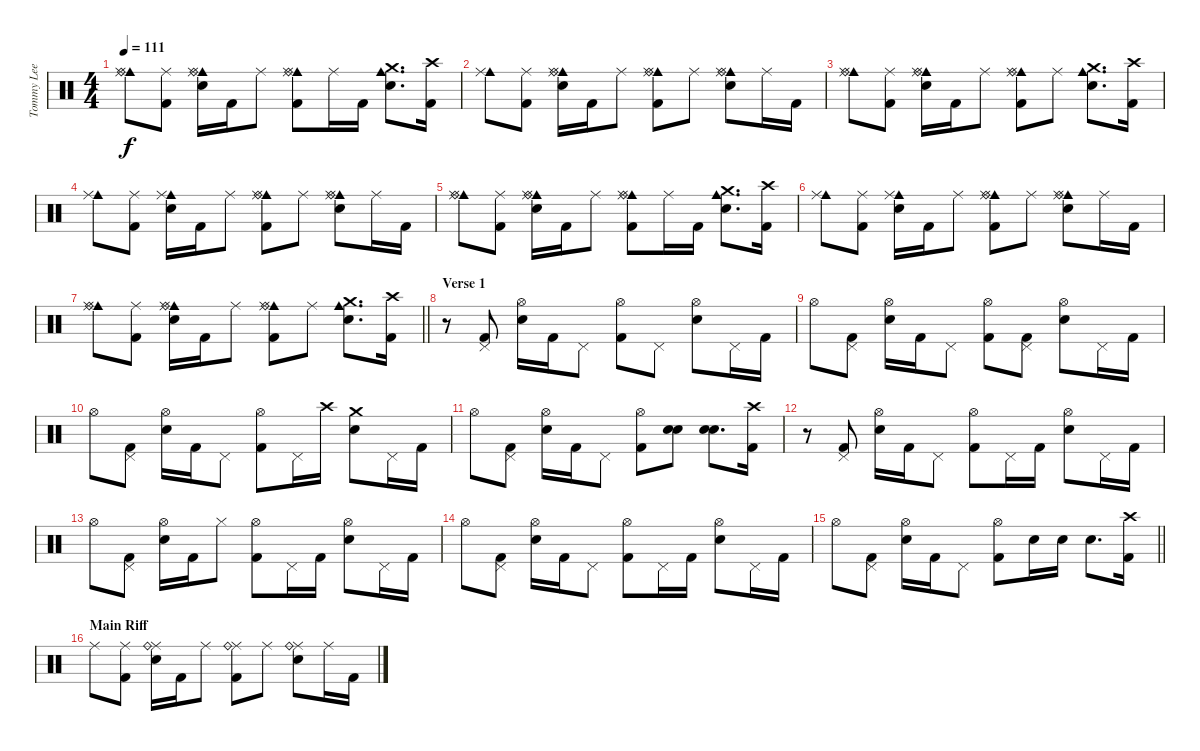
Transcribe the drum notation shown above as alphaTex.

\track ("Tommy Lee" "Tommy Lee") {instrument percussion}
\staff {score}
\articulation defaults
\ts (4 4)
\tempo 111
\clef neutral
\ks c
("Cowbell medium (hit)" "Ride (middle)" "Ride (bell)").8{dy f} ("Ride (middle)" "Kick (hit) 2").8 ("Cowbell medium (hit)" "Ride (middle)" "Ride (bell)" "Snare (hit) 2").16 "Kick (hit) 2".16 "Ride (middle)".8 ("Cowbell medium (hit)" "Ride (middle)" "Ride (bell)" "Kick (hit) 2").8 "Ride (middle)".16 "Kick (hit) 2".16 ("Cowbell medium (hit)" "Crash medium (hit)" "Snare (hit) 2").8{d} ("Crash high (hit)" "Kick (hit) 2").16 |
("Cowbell medium (hit)" "Ride (middle)").8 ("Ride (middle)" "Kick (hit) 2").8 ("Cowbell medium (hit)" "Ride (middle)" "Ride (bell)" "Snare (hit) 2").16 "Kick (hit) 2".16 "Ride (middle)".8 ("Cowbell medium (hit)" "Ride (middle)" "Ride (bell)" "Kick (hit) 2").8 "Ride (middle)".8 ("Cowbell medium (hit)" "Ride (middle)" "Ride (bell)" "Snare (hit) 2").8 "Ride (middle)".16 "Kick (hit) 2".16 |
("Cowbell medium (hit)" "Ride (middle)" "Ride (bell)").8 ("Ride (middle)" "Kick (hit) 2").8 ("Cowbell medium (hit)" "Ride (middle)" "Ride (bell)" "Snare (hit) 2").16 "Kick (hit) 2".16 "Ride (middle)".8 ("Cowbell medium (hit)" "Ride (middle)" "Ride (bell)" "Kick (hit) 2").8 "Ride (middle)".8 ("Cowbell medium (hit)" "Crash medium (hit)" "Snare (hit) 2").8{d} ("Crash high (hit)" "Kick (hit) 2").16 |
("Cowbell medium (hit)" "Ride (middle)").8 ("Ride (middle)" "Kick (hit) 2").8 ("Cowbell medium (hit)" "Ride (middle)" "Snare (hit) 2").16 "Kick (hit) 2".16 "Ride (middle)".8 ("Cowbell medium (hit)" "Ride (middle)" "Ride (bell)" "Kick (hit) 2").8 "Ride (middle)".8 ("Cowbell medium (hit)" "Ride (middle)" "Ride (bell)" "Snare (hit) 2").8 "Ride (middle)".16 "Kick (hit) 2".16 |
("Cowbell medium (hit)" "Ride (middle)" "Ride (bell)").8 ("Ride (middle)" "Kick (hit) 2").8 ("Cowbell medium (hit)" "Ride (middle)" "Ride (bell)" "Snare (hit) 2").16 "Kick (hit) 2".16 "Ride (middle)".8 ("Cowbell medium (hit)" "Ride (middle)" "Ride (bell)" "Kick (hit) 2").8 "Ride (middle)".16 "Kick (hit) 2".16 ("Cowbell medium (hit)" "Crash medium (hit)" "Snare (hit) 2").8{d} ("Crash high (hit)" "Kick (hit) 2").16 |
("Cowbell medium (hit)" "Ride (middle)").8 ("Ride (middle)" "Kick (hit) 2").8 ("Cowbell medium (hit)" "Ride (middle)" "Snare (hit) 2").16 "Kick (hit) 2".16 "Ride (middle)".8 ("Cowbell medium (hit)" "Ride (middle)" "Ride (bell)" "Kick (hit) 2").8 "Ride (middle)".8 ("Cowbell medium (hit)" "Ride (middle)" "Ride (bell)" "Snare (hit) 2").8 "Ride (middle)".16 "Kick (hit) 2".16 |
\barLineRight lightlight
("Cowbell medium (hit)" "Ride (middle)" "Ride (bell)").8 ("Ride (middle)" "Kick (hit) 2").8 ("Cowbell medium (hit)" "Ride (middle)" "Ride (bell)" "Snare (hit) 2").16 "Kick (hit) 2".16 "Ride (middle)".8 ("Cowbell medium (hit)" "Ride (middle)" "Ride (bell)" "Kick (hit) 2").8 "Ride (middle)".8 ("Cowbell medium (hit)" "Crash medium (hit)" "Snare (hit) 2").8{d} ("Crash high (hit)" "Kick (hit) 2").16 |
\section ("" "Verse 1")
r.8 ("Pedal Hi-Hat (hit)" "Kick (hit) 2").8 ("Hi-Hat (open)" "Snare (hit) 2").16 "Kick (hit) 2".16 "Pedal Hi-Hat (hit)".8 ("Hi-Hat (open)" "Kick (hit) 2").8 "Pedal Hi-Hat (hit)".8 ("Hi-Hat (open)" "Snare (hit) 2").8 "Pedal Hi-Hat (hit)".16 "Kick (hit) 2".16 |
"Hi-Hat (open)".8 ("Pedal Hi-Hat (hit)" "Kick (hit) 2").8 ("Hi-Hat (open)" "Snare (hit) 2").16 "Kick (hit) 2".16 "Pedal Hi-Hat (hit)".8 ("Hi-Hat (open)" "Kick (hit) 2").8 ("Pedal Hi-Hat (hit)" "Kick (hit) 2").8 ("Hi-Hat (open)" "Snare (hit) 2").8 "Pedal Hi-Hat (hit)".16 "Kick (hit) 2".16 |
"Hi-Hat (open)".8 ("Pedal Hi-Hat (hit)" "Kick (hit) 2").8 ("Hi-Hat (open)" "Snare (hit) 2").16 "Kick (hit) 2".16 "Pedal Hi-Hat (hit)".8 ("Hi-Hat (open)" "Kick (hit) 2").8 "Pedal Hi-Hat (hit)".16 "Crash high (hit)".16 ("Crash medium (hit)" "Snare (hit) 2").8 "Pedal Hi-Hat (hit)".16 "Kick (hit) 2".16 |
"Hi-Hat (open)".8 ("Pedal Hi-Hat (hit)" "Kick (hit) 2").8 ("Hi-Hat (open)" "Snare (hit) 2").16 "Kick (hit) 2".16 "Pedal Hi-Hat (hit)".8 ("Hi-Hat (open)" "Kick (hit) 2").8 ("Snare (hit) 2" "Snare (hit) 2").8 ("Snare (hit) 2" "Snare (hit) 2").8{d} ("Crash high (hit)" "Kick (hit) 2").16 |
r.8 ("Pedal Hi-Hat (hit)" "Kick (hit) 2").8 ("Hi-Hat (open)" "Snare (hit) 2").16 "Kick (hit) 2".16 "Pedal Hi-Hat (hit)".8 ("Hi-Hat (open)" "Kick (hit) 2").8 "Pedal Hi-Hat (hit)".16 "Kick (hit) 2".16 ("Hi-Hat (open)" "Snare (hit) 2").8 "Pedal Hi-Hat (hit)".16 "Kick (hit) 2".16 |
"Hi-Hat (open)".8 ("Pedal Hi-Hat (hit)" "Kick (hit) 2").8 ("Hi-Hat (open)" "Snare (hit) 2").16 "Kick (hit) 2".16 "Hi-Hat (closed)".8 ("Hi-Hat (open)" "Kick (hit) 2").8 "Pedal Hi-Hat (hit)".16 "Kick (hit) 2".16 ("Hi-Hat (open)" "Snare (hit) 2").8 "Pedal Hi-Hat (hit)".16 "Kick (hit) 2".16 |
"Hi-Hat (open)".8 ("Pedal Hi-Hat (hit)" "Kick (hit) 2").8 ("Hi-Hat (open)" "Snare (hit) 2").16 "Kick (hit) 2".16 "Pedal Hi-Hat (hit)".8 ("Hi-Hat (open)" "Kick (hit) 2").8 "Pedal Hi-Hat (hit)".16 "Kick (hit) 2".16 ("Hi-Hat (open)" "Snare (hit) 2").8 "Pedal Hi-Hat (hit)".16 "Kick (hit) 2".16 |
\barLineRight lightlight "Hi-Hat (open)".8
("Pedal Hi-Hat (hit)" "Kick (hit) 2").8 ("Hi-Hat (open)" "Snare (hit) 2").16 "Kick (hit) 2".16 "Pedal Hi-Hat (hit)".8 ("Hi-Hat (open)" "Kick (hit) 2").8 "Snare (hit) 2".16 "Snare (hit) 2".16 "Snare (hit) 2".8{d} ("Crash high (hit)" "Kick (hit) 2").16 |
\section ("" "Main Riff")
"Ride (middle)".8 ("Ride (middle)" "Kick (hit) 2").8 ("Ride (middle)" "Ride (bell)" "Snare (hit) 2").16 "Kick (hit) 2".16 "Ride (middle)".8 ("Ride (middle)" "Ride (bell)" "Kick (hit) 2").8 "Ride (middle)".8 ("Ride (middle)" "Ride (bell)" "Snare (hit) 2").8 "Ride (middle)".16 "Kick (hit) 2".16
